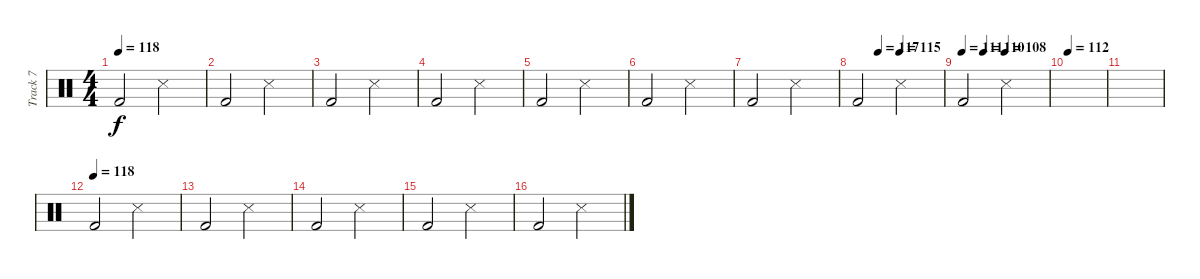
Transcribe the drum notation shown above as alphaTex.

\track ("Track 7" "Track 7") {instrument percussion}
\staff {score}
\articulation defaults
\ts (4 4)
\tempo 118
\clef neutral
\ks c "Kick (hit) 2".2{dy f} "Snare (side stick) 3".2
|
"Kick (hit) 2".2 "Snare (side stick) 3".2 |
"Kick (hit) 2".2 "Snare (side stick) 3".2 |
"Kick (hit) 2".2 "Snare (side stick) 3".2 |
"Kick (hit) 2".2 "Snare (side stick) 3".2 |
"Kick (hit) 2".2 "Snare (side stick) 3".2 |
"Kick (hit) 2".2 "Snare (side stick) 3".2 |
\tempo (117 0.25)
\tempo (115 0.5)
"Kick (hit) 2".2 "Snare (side stick) 3".2 |
\tempo 111
\tempo (110 0.25)
\tempo (108 0.5)
"Kick (hit) 2".2 "Snare (side stick) 3".2 |
\tempo 112
|
|
\tempo (118)
"Kick (hit) 2".2 "Snare (side stick) 3".2 |
"Kick (hit) 2".2 "Snare (side stick) 3".2 |
"Kick (hit) 2".2 "Snare (side stick) 3".2 |
"Kick (hit) 2".2 "Snare (side stick) 3".2 |
"Kick (hit) 2".2 "Snare (side stick) 3".2
